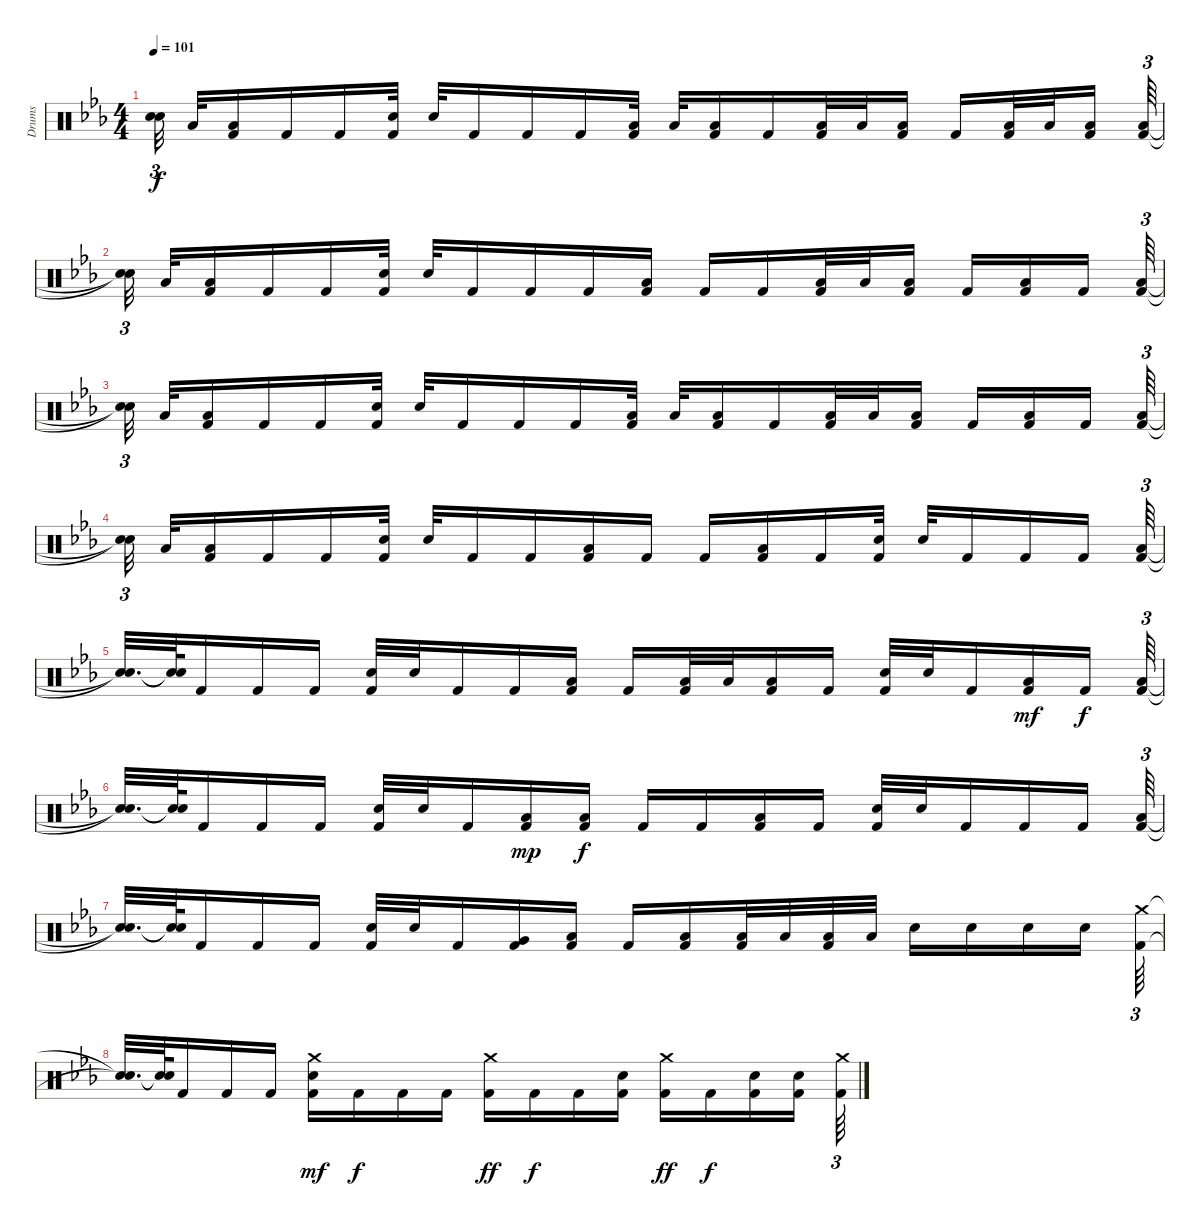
\track ("Drums" "Drums") {instrument percussion}
\staff {score}
\articulation defaults
\ts (4 4)
\tempo 101
\clef neutral
\ks cminor
("Snare (hit)"{t} "Snare (hit)"{t}).32{tu (3 2) dy f beam splitsecondary} "Low Tom (hit)".32 ("Kick (hit) 2" "Low Tom (hit)").16 "Kick (hit) 2".16 "Kick (hit) 2".16 ("Kick (hit) 2" "Electric Snare (hit)").32 "Electric Snare (hit)".32 "Kick (hit) 2".16 "Kick (hit) 2".16 "Kick (hit) 2".16 ("Kick (hit) 2" "Low Tom (hit)").32 "Low Tom (hit)".32 ("Kick (hit) 2" "Low Tom (hit)").16 "Kick (hit) 2".16 ("Kick (hit) 2" "Low Tom (hit)").32 "Low Tom (hit)".32 ("Kick (hit) 2" "Low Tom (hit)").16 "Kick (hit) 2".16 ("Kick (hit) 2" "Low Tom (hit)").32 "Low Tom (hit)".32 ("Kick (hit) 2" "Low Tom (hit)").16{beam splitsecondary} ("Kick (hit) 2" "Low Tom (hit)").64{tu (3 2)} |
("Snare (hit)"{t} "Snare (hit)"{t}).32{tu (3 2) beam splitsecondary} "Low Tom (hit)".32 ("Kick (hit) 2" "Low Tom (hit)").16 "Kick (hit) 2".16 "Kick (hit) 2".16 ("Kick (hit) 2" "Electric Snare (hit)").32 "Electric Snare (hit)".32 "Kick (hit) 2".16 "Kick (hit) 2".16 "Kick (hit) 2".16 ("Kick (hit) 2" "Low Tom (hit)").16 "Kick (hit) 2".16 "Kick (hit) 2".16 ("Kick (hit) 2" "Low Tom (hit)").32 "Low Tom (hit)".32 ("Kick (hit) 2" "Low Tom (hit)").16 "Kick (hit) 2".16 ("Kick (hit) 2" "Low Tom (hit)").16 "Kick (hit) 2".16{beam splitsecondary} ("Low Tom (hit)" "Kick (hit) 2").64{tu (3 2)} |
("Snare (hit)"{t} "Snare (hit)"{t}).32{tu (3 2) beam splitsecondary} "Low Tom (hit)".32 ("Kick (hit) 2" "Low Tom (hit)").16 "Kick (hit) 2".16 "Kick (hit) 2".16 ("Kick (hit) 2" "Electric Snare (hit)").32 "Electric Snare (hit)".32 "Kick (hit) 2".16 "Kick (hit) 2".16 "Kick (hit) 2".16 ("Kick (hit) 2" "Low Tom (hit)").32 "Low Tom (hit)".32 ("Kick (hit) 2" "Low Tom (hit)").16 "Kick (hit) 2".16 ("Kick (hit) 2" "Low Tom (hit)").32 "Low Tom (hit)".32 ("Kick (hit) 2" "Low Tom (hit)").16 "Kick (hit) 2".16 ("Kick (hit) 2" "Low Tom (hit)").16 "Kick (hit) 2".16{beam splitsecondary} ("Kick (hit) 2" "Low Tom (hit)").64{tu (3 2)} |
("Snare (hit)"{t} "Snare (hit)"{t}).32{tu (3 2) beam splitsecondary} "Low Tom (hit)".32 ("Kick (hit) 2" "Low Tom (hit)").16 "Kick (hit) 2".16 "Kick (hit) 2".16 ("Kick (hit) 2" "Electric Snare (hit)").32 "Electric Snare (hit)".32 "Kick (hit) 2".16 "Kick (hit) 2".16 ("Kick (hit) 2" "Low Tom (hit)").16 "Kick (hit) 2".16 "Kick (hit) 2".16 ("Kick (hit) 2" "Low Tom (hit)").16 "Kick (hit) 2".16 ("Kick (hit) 2" "Electric Snare (hit)").32 "Electric Snare (hit)".32 "Kick (hit) 2".16 "Kick (hit) 2".16 "Kick (hit) 2".16{beam splitsecondary} ("Kick (hit) 2" "Low Tom (hit)").64{tu (3 2)} |
("Snare (hit)"{t} "Snare (hit)"{t}).32{d} ("Snare (hit)"{t} "Snare (hit)"{t}).64 "Kick (hit) 2".16 "Kick (hit) 2".16 "Kick (hit) 2".16 ("Kick (hit) 2" "Electric Snare (hit)").32 "Electric Snare (hit)".32 "Kick (hit) 2".16 "Kick (hit) 2".16 ("Kick (hit) 2" "Low Tom (hit)").16 "Kick (hit) 2".16 ("Kick (hit) 2" "Low Tom (hit)").32 "Low Tom (hit)".32 ("Kick (hit) 2" "Low Tom (hit)").16 "Kick (hit) 2".16 ("Kick (hit) 2" "Electric Snare (hit)").32 "Electric Snare (hit)".32 "Kick (hit) 2".16 ("Kick (hit) 2" "Low Tom (hit)").16{dy mf} "Kick (hit) 2".16{dy f} ("Low Tom (hit)" "Kick (hit) 2").64{tu (3 2)} |
("Snare (hit)"{t} "Snare (hit)"{t}).32{d} ("Snare (hit)"{t} "Snare (hit)"{t}).64 "Kick (hit) 2".16 "Kick (hit) 2".16 "Kick (hit) 2".16 ("Kick (hit) 2" "Electric Snare (hit)").32 "Electric Snare (hit)".32 "Kick (hit) 2".16 ("Kick (hit) 2" "Low Tom (hit)").16{dy mp} ("Kick (hit) 2" "Low Tom (hit)").16{dy f} "Kick (hit) 2".16 "Kick (hit) 2".16 ("Kick (hit) 2" "Low Tom (hit)").16 "Kick (hit) 2".16 ("Kick (hit) 2" "Electric Snare (hit)").32 "Electric Snare (hit)".32 "Kick (hit) 2".16 "Kick (hit) 2".16 "Kick (hit) 2".16 ("Kick (hit) 2" "Low Tom (hit)").64{tu (3 2)} |
("Snare (hit)"{t} "Snare (hit)"{t}).32{d} ("Snare (hit)"{t} "Snare (hit)"{t}).64 "Kick (hit) 2".16 "Kick (hit) 2".16 "Kick (hit) 2".16 ("Kick (hit) 2" "Electric Snare (hit)").32 "Electric Snare (hit)".32 "Kick (hit) 2".16 ("Kick (hit) 2" "Very Low Tom (hit)").16 ("Kick (hit) 2" "Low Tom (hit)").16 "Kick (hit) 2".16 ("Kick (hit) 2" "Low Tom (hit)").16 ("Kick (hit) 2" "Low Tom (hit)").32 "Low Tom (hit)".32 ("Kick (hit) 2" "Low Tom (hit)").32 "Low Tom (hit)".32 "Electric Snare (hit)".16 "Electric Snare (hit)".16 "Electric Snare (hit)".16 "Electric Snare (hit)".16 ("Kick (hit) 2" "Crash medium (hit)").64{tu (3 2)} |
("Snare (hit)"{t} "Snare (hit)"{t}).32{d} ("Snare (hit)"{t} "Snare (hit)"{t}).64 "Kick (hit) 2".16 "Kick (hit) 2".16 "Kick (hit) 2".16 ("Kick (hit) 2" "Electric Snare (hit)" "Crash medium (hit)").16{dy mf} "Kick (hit) 2".16{dy f} "Kick (hit) 2".16 "Kick (hit) 2".16 ("Kick (hit) 2" "Crash medium (hit)").16{dy ff} "Kick (hit) 2".16{dy f} "Kick (hit) 2".16 ("Kick (hit) 2" "Electric Snare (hit)").16 ("Kick (hit) 2" "Crash medium (hit)").16{dy ff} "Kick (hit) 2".16{dy f} ("Kick (hit) 2" "Electric Snare (hit)").16 ("Kick (hit) 2" "Electric Snare (hit)").16 ("Kick (hit) 2" "Crash medium (hit)").64{tu (3 2)}
